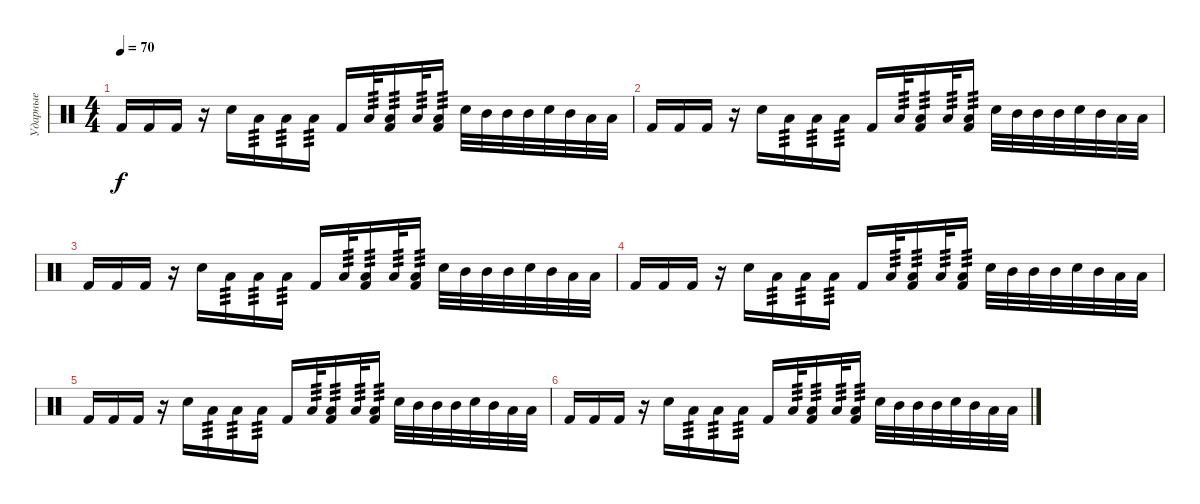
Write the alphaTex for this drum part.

\track ("Ударные" "Ударные") {instrument percussion}
\staff {score}
\articulation defaults
\ts (4 4)
\tempo 70
\clef neutral
\ks c "Kick (hit) 2".16{dy f} "Kick (hit) 2".16 "Kick (hit) 2".16
r.16 "Electric Snare (hit)".16 "Low Floor Tom (hit)".16{tp 3} "Low Floor Tom (hit)".16{tp 3} "Low Floor Tom (hit)".16{tp 3} "Kick (hit) 2".16 "Low Floor Tom (hit)".32{tp 3} ("Low Floor Tom (hit)" "Kick (hit) 2").16{tp 3} "Low Floor Tom (hit)".32{tp 3} ("Low Floor Tom (hit)" "Kick (hit) 2").16{tp 3} "Electric Snare (hit)".32 "Mid Tom (hit)".32 "Mid Tom (hit)".32 "Mid Tom (hit)".32 "Electric Snare (hit)".32 "Mid Tom (hit)".32 "Low Floor Tom (hit)".32 "Low Floor Tom (hit)".32 |
"Kick (hit) 2".16 "Kick (hit) 2".16 "Kick (hit) 2".16 r.16 "Electric Snare (hit)".16 "Low Floor Tom (hit)".16{tp 3} "Low Floor Tom (hit)".16{tp 3} "Low Floor Tom (hit)".16{tp 3} "Kick (hit) 2".16 "Low Floor Tom (hit)".32{tp 3} ("Low Floor Tom (hit)" "Kick (hit) 2").16{tp 3} "Low Floor Tom (hit)".32{tp 3} ("Low Floor Tom (hit)" "Kick (hit) 2").16{tp 3} "Electric Snare (hit)".32 "Mid Tom (hit)".32 "Mid Tom (hit)".32 "Mid Tom (hit)".32 "Electric Snare (hit)".32 "Mid Tom (hit)".32 "Low Floor Tom (hit)".32 "Low Floor Tom (hit)".32 |
"Kick (hit) 2".16{volume 0} "Kick (hit) 2".16 "Kick (hit) 2".16 r.16 "Electric Snare (hit)".16 "Low Floor Tom (hit)".16{tp 3} "Low Floor Tom (hit)".16{tp 3} "Low Floor Tom (hit)".16{tp 3} "Kick (hit) 2".16 "Low Floor Tom (hit)".32{tp 3} ("Low Floor Tom (hit)" "Kick (hit) 2").16{tp 3} "Low Floor Tom (hit)".32{tp 3} ("Low Floor Tom (hit)" "Kick (hit) 2").16{tp 3} "Electric Snare (hit)".32 "Mid Tom (hit)".32 "Mid Tom (hit)".32 "Mid Tom (hit)".32 "Electric Snare (hit)".32 "Mid Tom (hit)".32 "Low Floor Tom (hit)".32 "Low Floor Tom (hit)".32 |
"Kick (hit) 2".16 "Kick (hit) 2".16 "Kick (hit) 2".16 r.16 "Electric Snare (hit)".16 "Low Floor Tom (hit)".16{tp 3} "Low Floor Tom (hit)".16{tp 3} "Low Floor Tom (hit)".16{tp 3} "Kick (hit) 2".16 "Low Floor Tom (hit)".32{tp 3} ("Low Floor Tom (hit)" "Kick (hit) 2").16{tp 3} "Low Floor Tom (hit)".32{tp 3} ("Low Floor Tom (hit)" "Kick (hit) 2").16{tp 3} "Electric Snare (hit)".32 "Mid Tom (hit)".32 "Mid Tom (hit)".32 "Mid Tom (hit)".32 "Electric Snare (hit)".32 "Mid Tom (hit)".32 "Low Floor Tom (hit)".32 "Low Floor Tom (hit)".32 |
"Kick (hit) 2".16 "Kick (hit) 2".16 "Kick (hit) 2".16 r.16 "Electric Snare (hit)".16 "Low Floor Tom (hit)".16{tp 3} "Low Floor Tom (hit)".16{tp 3} "Low Floor Tom (hit)".16{tp 3} "Kick (hit) 2".16 "Low Floor Tom (hit)".32{tp 3} ("Low Floor Tom (hit)" "Kick (hit) 2").16{tp 3} "Low Floor Tom (hit)".32{tp 3} ("Low Floor Tom (hit)" "Kick (hit) 2").16{tp 3} "Electric Snare (hit)".32 "Mid Tom (hit)".32 "Mid Tom (hit)".32 "Mid Tom (hit)".32 "Electric Snare (hit)".32 "Mid Tom (hit)".32 "Low Floor Tom (hit)".32 "Low Floor Tom (hit)".32 |
"Kick (hit) 2".16 "Kick (hit) 2".16 "Kick (hit) 2".16 r.16 "Electric Snare (hit)".16 "Low Floor Tom (hit)".16{tp 3} "Low Floor Tom (hit)".16{tp 3} "Low Floor Tom (hit)".16{tp 3} "Kick (hit) 2".16 "Low Floor Tom (hit)".32{tp 3} ("Low Floor Tom (hit)" "Kick (hit) 2").16{tp 3} "Low Floor Tom (hit)".32{tp 3} ("Low Floor Tom (hit)" "Kick (hit) 2").16{tp 3} "Electric Snare (hit)".32 "Mid Tom (hit)".32 "Mid Tom (hit)".32 "Mid Tom (hit)".32 "Electric Snare (hit)".32 "Mid Tom (hit)".32 "Low Floor Tom (hit)".32 "Low Floor Tom (hit)".32
